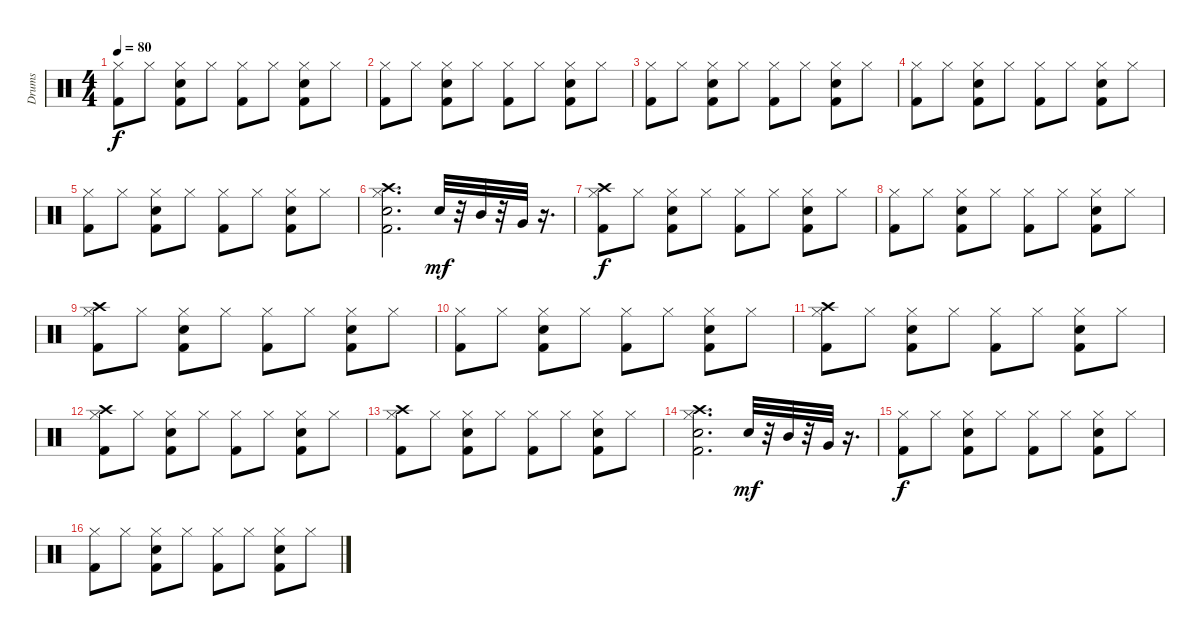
\track ("Drums" "Drums") {instrument percussion}
\staff {score}
\articulation defaults
\ts (4 4)
\tempo 80
\clef neutral
\ks c
("Hi-Hat (closed)" "Kick (hit) 2").8{dy f} "Hi-Hat (closed)".8 ("Hi-Hat (closed)" "Electric Snare (hit)" "Kick (hit) 2").8 "Hi-Hat (closed)".8 ("Hi-Hat (closed)" "Kick (hit) 2").8 "Hi-Hat (closed)".8 ("Hi-Hat (closed)" "Electric Snare (hit)" "Kick (hit) 2").8 "Hi-Hat (closed)".8 |
("Hi-Hat (closed)" "Kick (hit) 2").8 "Hi-Hat (closed)".8 ("Hi-Hat (closed)" "Electric Snare (hit)" "Kick (hit) 2").8 "Hi-Hat (closed)".8 ("Hi-Hat (closed)" "Kick (hit) 2").8 "Hi-Hat (closed)".8 ("Hi-Hat (closed)" "Electric Snare (hit)" "Kick (hit) 2").8 "Hi-Hat (closed)".8 |
("Hi-Hat (closed)" "Kick (hit) 2").8 "Hi-Hat (closed)".8 ("Hi-Hat (closed)" "Electric Snare (hit)" "Kick (hit) 2").8 "Hi-Hat (closed)".8 ("Hi-Hat (closed)" "Kick (hit) 2").8 "Hi-Hat (closed)".8 ("Hi-Hat (closed)" "Electric Snare (hit)" "Kick (hit) 2").8 "Hi-Hat (closed)".8 |
("Hi-Hat (closed)" "Kick (hit) 2").8 "Hi-Hat (closed)".8 ("Hi-Hat (closed)" "Electric Snare (hit)" "Kick (hit) 2").8 "Hi-Hat (closed)".8 ("Hi-Hat (closed)" "Kick (hit) 2").8 "Hi-Hat (closed)".8 ("Hi-Hat (closed)" "Electric Snare (hit)" "Kick (hit) 2").8 "Hi-Hat (closed)".8 |
("Hi-Hat (closed)" "Kick (hit) 2").8 "Hi-Hat (closed)".8 ("Hi-Hat (closed)" "Electric Snare (hit)" "Kick (hit) 2").8 "Hi-Hat (closed)".8 ("Hi-Hat (closed)" "Kick (hit) 2").8 "Hi-Hat (closed)".8 ("Hi-Hat (closed)" "Electric Snare (hit)" "Kick (hit) 2").8 "Hi-Hat (closed)".8 |
("Hi-Hat (closed)" "Electric Snare (hit)" "Kick (hit) 2" "Crash high (hit)").2{d} "Snare (hit) 2".32{dy mf} r.32 "Mid Tom (hit)".32 r.32 "Very Low Tom (hit)".32 r.16{d} |
("Hi-Hat (closed)" "Kick (hit) 2" "Crash high (hit)").8{dy f} "Hi-Hat (closed)".8 ("Hi-Hat (closed)" "Electric Snare (hit)" "Kick (hit) 2").8 "Hi-Hat (closed)".8 ("Hi-Hat (closed)" "Kick (hit) 2").8 "Hi-Hat (closed)".8 ("Hi-Hat (closed)" "Electric Snare (hit)" "Kick (hit) 2").8 "Hi-Hat (closed)".8 |
("Hi-Hat (closed)" "Kick (hit) 2").8 "Hi-Hat (closed)".8 ("Hi-Hat (closed)" "Electric Snare (hit)" "Kick (hit) 2").8 "Hi-Hat (closed)".8 ("Hi-Hat (closed)" "Kick (hit) 2").8 "Hi-Hat (closed)".8 ("Hi-Hat (closed)" "Electric Snare (hit)" "Kick (hit) 2").8 "Hi-Hat (closed)".8 |
("Hi-Hat (closed)" "Kick (hit) 2" "Crash high (hit)").8 "Hi-Hat (closed)".8 ("Hi-Hat (closed)" "Electric Snare (hit)" "Kick (hit) 2").8 "Hi-Hat (closed)".8 ("Hi-Hat (closed)" "Kick (hit) 2").8 "Hi-Hat (closed)".8 ("Hi-Hat (closed)" "Electric Snare (hit)" "Kick (hit) 2").8 "Hi-Hat (closed)".8 |
("Hi-Hat (closed)" "Kick (hit) 2").8 "Hi-Hat (closed)".8 ("Hi-Hat (closed)" "Electric Snare (hit)" "Kick (hit) 2").8 "Hi-Hat (closed)".8 ("Hi-Hat (closed)" "Kick (hit) 2").8 "Hi-Hat (closed)".8 ("Hi-Hat (closed)" "Electric Snare (hit)" "Kick (hit) 2").8 "Hi-Hat (closed)".8 |
("Hi-Hat (closed)" "Kick (hit) 2" "Crash high (hit)").8 "Hi-Hat (closed)".8 ("Hi-Hat (closed)" "Electric Snare (hit)" "Kick (hit) 2").8 "Hi-Hat (closed)".8 ("Hi-Hat (closed)" "Kick (hit) 2").8 "Hi-Hat (closed)".8 ("Hi-Hat (closed)" "Electric Snare (hit)" "Kick (hit) 2").8 "Hi-Hat (closed)".8 |
("Hi-Hat (closed)" "Kick (hit) 2" "Crash high (hit)").8 "Hi-Hat (closed)".8 ("Hi-Hat (closed)" "Electric Snare (hit)" "Kick (hit) 2").8 "Hi-Hat (closed)".8 ("Hi-Hat (closed)" "Kick (hit) 2").8 "Hi-Hat (closed)".8 ("Hi-Hat (closed)" "Electric Snare (hit)" "Kick (hit) 2").8 "Hi-Hat (closed)".8 |
("Hi-Hat (closed)" "Kick (hit) 2" "Crash high (hit)").8 "Hi-Hat (closed)".8 ("Hi-Hat (closed)" "Electric Snare (hit)" "Kick (hit) 2").8 "Hi-Hat (closed)".8 ("Hi-Hat (closed)" "Kick (hit) 2").8 "Hi-Hat (closed)".8 ("Hi-Hat (closed)" "Electric Snare (hit)" "Kick (hit) 2").8 "Hi-Hat (closed)".8 |
("Hi-Hat (closed)" "Electric Snare (hit)" "Kick (hit) 2" "Crash high (hit)").2{d} "Snare (hit) 2".32{dy mf} r.32 "Mid Tom (hit)".32 r.32 "Very Low Tom (hit)".32 r.16{d} |
("Hi-Hat (closed)" "Kick (hit) 2").8{dy f} "Hi-Hat (closed)".8 ("Hi-Hat (closed)" "Electric Snare (hit)" "Kick (hit) 2").8 "Hi-Hat (closed)".8 ("Hi-Hat (closed)" "Kick (hit) 2").8 "Hi-Hat (closed)".8 ("Hi-Hat (closed)" "Electric Snare (hit)" "Kick (hit) 2").8 "Hi-Hat (closed)".8 |
("Hi-Hat (closed)" "Kick (hit) 2").8 "Hi-Hat (closed)".8 ("Hi-Hat (closed)" "Electric Snare (hit)" "Kick (hit) 2").8 "Hi-Hat (closed)".8 ("Hi-Hat (closed)" "Kick (hit) 2").8 "Hi-Hat (closed)".8 ("Hi-Hat (closed)" "Electric Snare (hit)" "Kick (hit) 2").8 "Hi-Hat (closed)".8
